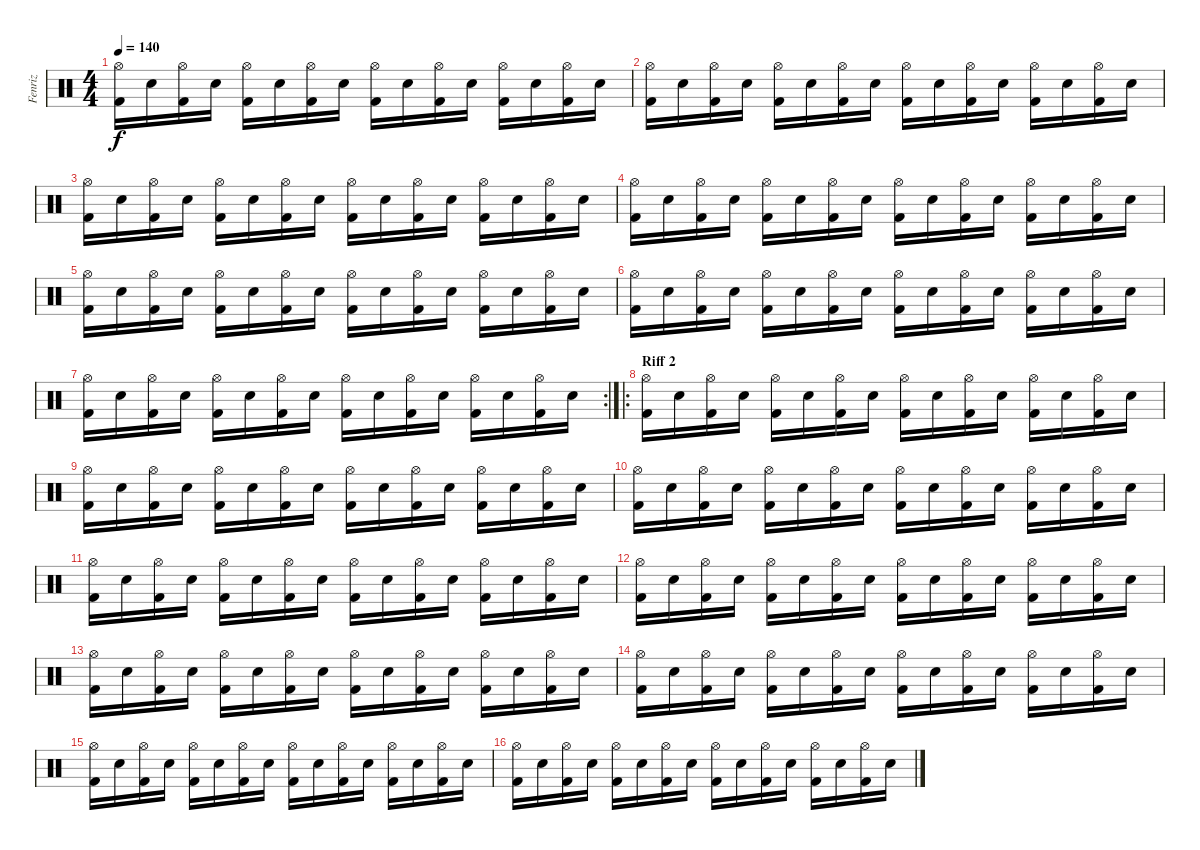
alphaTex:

\track ("Fenriz" "Fenriz") {instrument percussion}
\staff {score}
\articulation defaults
\ts (4 4)
\tempo 140
\clef neutral
\ks c
("Hi-Hat (open)" "Kick (hit) 2").16{dy f} "Snare (hit) 2".16 ("Hi-Hat (open)" "Kick (hit) 2").16 "Snare (hit) 2".16 ("Hi-Hat (open)" "Kick (hit) 2").16 "Snare (hit) 2".16 ("Hi-Hat (open)" "Kick (hit) 2").16 "Snare (hit) 2".16 ("Hi-Hat (open)" "Kick (hit) 2").16 "Snare (hit) 2".16 ("Hi-Hat (open)" "Kick (hit) 2").16 "Snare (hit) 2".16 ("Hi-Hat (open)" "Kick (hit) 2").16 "Snare (hit) 2".16 ("Hi-Hat (open)" "Kick (hit) 2").16 "Snare (hit) 2".16 |
("Hi-Hat (open)" "Kick (hit) 2").16 "Snare (hit) 2".16 ("Hi-Hat (open)" "Kick (hit) 2").16 "Snare (hit) 2".16 ("Hi-Hat (open)" "Kick (hit) 2").16 "Snare (hit) 2".16 ("Hi-Hat (open)" "Kick (hit) 2").16 "Snare (hit) 2".16 ("Hi-Hat (open)" "Kick (hit) 2").16 "Snare (hit) 2".16 ("Hi-Hat (open)" "Kick (hit) 2").16 "Snare (hit) 2".16 ("Hi-Hat (open)" "Kick (hit) 2").16 "Snare (hit) 2".16 ("Hi-Hat (open)" "Kick (hit) 2").16 "Snare (hit) 2".16 |
("Hi-Hat (open)" "Kick (hit) 2").16 "Snare (hit) 2".16 ("Hi-Hat (open)" "Kick (hit) 2").16 "Snare (hit) 2".16 ("Hi-Hat (open)" "Kick (hit) 2").16 "Snare (hit) 2".16 ("Hi-Hat (open)" "Kick (hit) 2").16 "Snare (hit) 2".16 ("Hi-Hat (open)" "Kick (hit) 2").16 "Snare (hit) 2".16 ("Hi-Hat (open)" "Kick (hit) 2").16 "Snare (hit) 2".16 ("Hi-Hat (open)" "Kick (hit) 2").16 "Snare (hit) 2".16 ("Hi-Hat (open)" "Kick (hit) 2").16 "Snare (hit) 2".16 |
("Hi-Hat (open)" "Kick (hit) 2").16 "Snare (hit) 2".16 ("Hi-Hat (open)" "Kick (hit) 2").16 "Snare (hit) 2".16 ("Hi-Hat (open)" "Kick (hit) 2").16 "Snare (hit) 2".16 ("Hi-Hat (open)" "Kick (hit) 2").16 "Snare (hit) 2".16 ("Hi-Hat (open)" "Kick (hit) 2").16 "Snare (hit) 2".16 ("Hi-Hat (open)" "Kick (hit) 2").16 "Snare (hit) 2".16 ("Hi-Hat (open)" "Kick (hit) 2").16 "Snare (hit) 2".16 ("Hi-Hat (open)" "Kick (hit) 2").16 "Snare (hit) 2".16 |
("Hi-Hat (open)" "Kick (hit) 2").16 "Snare (hit) 2".16 ("Hi-Hat (open)" "Kick (hit) 2").16 "Snare (hit) 2".16 ("Hi-Hat (open)" "Kick (hit) 2").16 "Snare (hit) 2".16 ("Hi-Hat (open)" "Kick (hit) 2").16 "Snare (hit) 2".16 ("Hi-Hat (open)" "Kick (hit) 2").16 "Snare (hit) 2".16 ("Hi-Hat (open)" "Kick (hit) 2").16 "Snare (hit) 2".16 ("Hi-Hat (open)" "Kick (hit) 2").16 "Snare (hit) 2".16 ("Hi-Hat (open)" "Kick (hit) 2").16 "Snare (hit) 2".16 |
("Hi-Hat (open)" "Kick (hit) 2").16 "Snare (hit) 2".16 ("Hi-Hat (open)" "Kick (hit) 2").16 "Snare (hit) 2".16 ("Hi-Hat (open)" "Kick (hit) 2").16 "Snare (hit) 2".16 ("Hi-Hat (open)" "Kick (hit) 2").16 "Snare (hit) 2".16 ("Hi-Hat (open)" "Kick (hit) 2").16 "Snare (hit) 2".16 ("Hi-Hat (open)" "Kick (hit) 2").16 "Snare (hit) 2".16 ("Hi-Hat (open)" "Kick (hit) 2").16 "Snare (hit) 2".16 ("Hi-Hat (open)" "Kick (hit) 2").16 "Snare (hit) 2".16 |
\rc 2
("Hi-Hat (open)" "Kick (hit) 2").16 "Snare (hit) 2".16 ("Hi-Hat (open)" "Kick (hit) 2").16 "Snare (hit) 2".16 ("Hi-Hat (open)" "Kick (hit) 2").16 "Snare (hit) 2".16 ("Hi-Hat (open)" "Kick (hit) 2").16 "Snare (hit) 2".16 ("Hi-Hat (open)" "Kick (hit) 2").16 "Snare (hit) 2".16 ("Hi-Hat (open)" "Kick (hit) 2").16 "Snare (hit) 2".16 ("Hi-Hat (open)" "Kick (hit) 2").16 "Snare (hit) 2".16 ("Hi-Hat (open)" "Kick (hit) 2").16 "Snare (hit) 2".16 |
\ro
\section ("" "Riff 2")
("Hi-Hat (open)" "Kick (hit) 2").16 "Snare (hit) 2".16 ("Hi-Hat (open)" "Kick (hit) 2").16 "Snare (hit) 2".16 ("Hi-Hat (open)" "Kick (hit) 2").16 "Snare (hit) 2".16 ("Hi-Hat (open)" "Kick (hit) 2").16 "Snare (hit) 2".16 ("Hi-Hat (open)" "Kick (hit) 2").16 "Snare (hit) 2".16 ("Hi-Hat (open)" "Kick (hit) 2").16 "Snare (hit) 2".16 ("Hi-Hat (open)" "Kick (hit) 2").16 "Snare (hit) 2".16 ("Hi-Hat (open)" "Kick (hit) 2").16 "Snare (hit) 2".16 |
("Hi-Hat (open)" "Kick (hit) 2").16 "Snare (hit) 2".16 ("Hi-Hat (open)" "Kick (hit) 2").16 "Snare (hit) 2".16 ("Hi-Hat (open)" "Kick (hit) 2").16 "Snare (hit) 2".16 ("Hi-Hat (open)" "Kick (hit) 2").16 "Snare (hit) 2".16 ("Hi-Hat (open)" "Kick (hit) 2").16 "Snare (hit) 2".16 ("Hi-Hat (open)" "Kick (hit) 2").16 "Snare (hit) 2".16 ("Hi-Hat (open)" "Kick (hit) 2").16 "Snare (hit) 2".16 ("Hi-Hat (open)" "Kick (hit) 2").16 "Snare (hit) 2".16 |
("Hi-Hat (open)" "Kick (hit) 2").16 "Snare (hit) 2".16 ("Hi-Hat (open)" "Kick (hit) 2").16 "Snare (hit) 2".16 ("Hi-Hat (open)" "Kick (hit) 2").16 "Snare (hit) 2".16 ("Hi-Hat (open)" "Kick (hit) 2").16 "Snare (hit) 2".16 ("Hi-Hat (open)" "Kick (hit) 2").16 "Snare (hit) 2".16 ("Hi-Hat (open)" "Kick (hit) 2").16 "Snare (hit) 2".16 ("Hi-Hat (open)" "Kick (hit) 2").16 "Snare (hit) 2".16 ("Hi-Hat (open)" "Kick (hit) 2").16 "Snare (hit) 2".16 |
("Hi-Hat (open)" "Kick (hit) 2").16 "Snare (hit) 2".16 ("Hi-Hat (open)" "Kick (hit) 2").16 "Snare (hit) 2".16 ("Hi-Hat (open)" "Kick (hit) 2").16 "Snare (hit) 2".16 ("Hi-Hat (open)" "Kick (hit) 2").16 "Snare (hit) 2".16 ("Hi-Hat (open)" "Kick (hit) 2").16 "Snare (hit) 2".16 ("Hi-Hat (open)" "Kick (hit) 2").16 "Snare (hit) 2".16 ("Hi-Hat (open)" "Kick (hit) 2").16 "Snare (hit) 2".16 ("Hi-Hat (open)" "Kick (hit) 2").16 "Snare (hit) 2".16 |
("Hi-Hat (open)" "Kick (hit) 2").16 "Snare (hit) 2".16 ("Hi-Hat (open)" "Kick (hit) 2").16 "Snare (hit) 2".16 ("Hi-Hat (open)" "Kick (hit) 2").16 "Snare (hit) 2".16 ("Hi-Hat (open)" "Kick (hit) 2").16 "Snare (hit) 2".16 ("Hi-Hat (open)" "Kick (hit) 2").16 "Snare (hit) 2".16 ("Hi-Hat (open)" "Kick (hit) 2").16 "Snare (hit) 2".16 ("Hi-Hat (open)" "Kick (hit) 2").16 "Snare (hit) 2".16 ("Hi-Hat (open)" "Kick (hit) 2").16 "Snare (hit) 2".16 |
("Hi-Hat (open)" "Kick (hit) 2").16 "Snare (hit) 2".16 ("Hi-Hat (open)" "Kick (hit) 2").16 "Snare (hit) 2".16 ("Hi-Hat (open)" "Kick (hit) 2").16 "Snare (hit) 2".16 ("Hi-Hat (open)" "Kick (hit) 2").16 "Snare (hit) 2".16 ("Hi-Hat (open)" "Kick (hit) 2").16 "Snare (hit) 2".16 ("Hi-Hat (open)" "Kick (hit) 2").16 "Snare (hit) 2".16 ("Hi-Hat (open)" "Kick (hit) 2").16 "Snare (hit) 2".16 ("Hi-Hat (open)" "Kick (hit) 2").16 "Snare (hit) 2".16 |
("Hi-Hat (open)" "Kick (hit) 2").16 "Snare (hit) 2".16 ("Hi-Hat (open)" "Kick (hit) 2").16 "Snare (hit) 2".16 ("Hi-Hat (open)" "Kick (hit) 2").16 "Snare (hit) 2".16 ("Hi-Hat (open)" "Kick (hit) 2").16 "Snare (hit) 2".16 ("Hi-Hat (open)" "Kick (hit) 2").16 "Snare (hit) 2".16 ("Hi-Hat (open)" "Kick (hit) 2").16 "Snare (hit) 2".16 ("Hi-Hat (open)" "Kick (hit) 2").16 "Snare (hit) 2".16 ("Hi-Hat (open)" "Kick (hit) 2").16 "Snare (hit) 2".16 |
("Hi-Hat (open)" "Kick (hit) 2").16 "Snare (hit) 2".16 ("Hi-Hat (open)" "Kick (hit) 2").16 "Snare (hit) 2".16 ("Hi-Hat (open)" "Kick (hit) 2").16 "Snare (hit) 2".16 ("Hi-Hat (open)" "Kick (hit) 2").16 "Snare (hit) 2".16 ("Hi-Hat (open)" "Kick (hit) 2").16 "Snare (hit) 2".16 ("Hi-Hat (open)" "Kick (hit) 2").16 "Snare (hit) 2".16 ("Hi-Hat (open)" "Kick (hit) 2").16 "Snare (hit) 2".16 ("Hi-Hat (open)" "Kick (hit) 2").16 "Snare (hit) 2".16 |
("Hi-Hat (open)" "Kick (hit) 2").16 "Snare (hit) 2".16 ("Hi-Hat (open)" "Kick (hit) 2").16 "Snare (hit) 2".16 ("Hi-Hat (open)" "Kick (hit) 2").16 "Snare (hit) 2".16 ("Hi-Hat (open)" "Kick (hit) 2").16 "Snare (hit) 2".16 ("Hi-Hat (open)" "Kick (hit) 2").16 "Snare (hit) 2".16 ("Hi-Hat (open)" "Kick (hit) 2").16 "Snare (hit) 2".16 ("Hi-Hat (open)" "Kick (hit) 2").16 "Snare (hit) 2".16 ("Hi-Hat (open)" "Kick (hit) 2").16 "Snare (hit) 2".16
